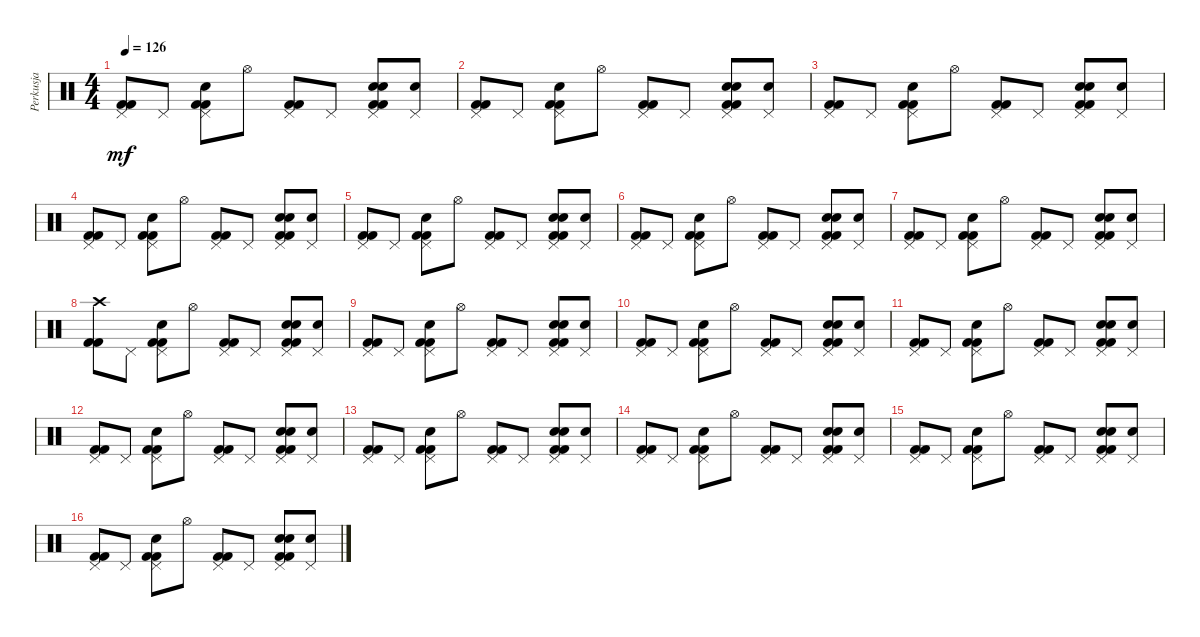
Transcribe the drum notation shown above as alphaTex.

\track ("Perkusja" "Perkusja") {instrument percussion}
\staff {score}
\articulation defaults
\ts (4 4)
\tempo 126
\clef neutral
\ks c
("Pedal Hi-Hat (hit)" "Kick (hit) 2" "Kick (hit) 2").8{dy mf} "Pedal Hi-Hat (hit)".8 ("Pedal Hi-Hat (hit)" "Snare (hit) 2" "Kick (hit) 2" "Kick (hit) 2").8 "Hi-Hat (open)".8 ("Pedal Hi-Hat (hit)" "Kick (hit) 2" "Kick (hit) 2").8 "Pedal Hi-Hat (hit)".8 ("Pedal Hi-Hat (hit)" "Hand Clap (hit)" "Snare (hit) 2" "Kick (hit) 2" "Kick (hit) 2").8 ("Pedal Hi-Hat (hit)" "Hand Clap (hit)").8 |
("Pedal Hi-Hat (hit)" "Kick (hit) 2" "Kick (hit) 2").8 "Pedal Hi-Hat (hit)".8 ("Pedal Hi-Hat (hit)" "Snare (hit) 2" "Kick (hit) 2" "Kick (hit) 2").8 "Hi-Hat (open)".8 ("Pedal Hi-Hat (hit)" "Kick (hit) 2" "Kick (hit) 2").8 "Pedal Hi-Hat (hit)".8 ("Pedal Hi-Hat (hit)" "Hand Clap (hit)" "Snare (hit) 2" "Kick (hit) 2" "Kick (hit) 2").8 ("Pedal Hi-Hat (hit)" "Hand Clap (hit)").8 |
("Pedal Hi-Hat (hit)" "Kick (hit) 2" "Kick (hit) 2").8 "Pedal Hi-Hat (hit)".8 ("Pedal Hi-Hat (hit)" "Snare (hit) 2" "Kick (hit) 2" "Kick (hit) 2").8 "Hi-Hat (open)".8 ("Pedal Hi-Hat (hit)" "Kick (hit) 2" "Kick (hit) 2").8 "Pedal Hi-Hat (hit)".8 ("Pedal Hi-Hat (hit)" "Hand Clap (hit)" "Snare (hit) 2" "Kick (hit) 2" "Kick (hit) 2").8 ("Pedal Hi-Hat (hit)" "Hand Clap (hit)").8 |
("Pedal Hi-Hat (hit)" "Kick (hit) 2" "Kick (hit) 2").8 "Pedal Hi-Hat (hit)".8 ("Pedal Hi-Hat (hit)" "Snare (hit) 2" "Kick (hit) 2" "Kick (hit) 2").8 "Hi-Hat (open)".8 ("Pedal Hi-Hat (hit)" "Kick (hit) 2" "Kick (hit) 2").8 "Pedal Hi-Hat (hit)".8 ("Pedal Hi-Hat (hit)" "Hand Clap (hit)" "Snare (hit) 2" "Kick (hit) 2" "Kick (hit) 2").8 ("Pedal Hi-Hat (hit)" "Hand Clap (hit)").8 |
("Pedal Hi-Hat (hit)" "Kick (hit) 2" "Kick (hit) 2").8 "Pedal Hi-Hat (hit)".8 ("Pedal Hi-Hat (hit)" "Snare (hit) 2" "Kick (hit) 2" "Kick (hit) 2").8 "Hi-Hat (open)".8 ("Pedal Hi-Hat (hit)" "Kick (hit) 2" "Kick (hit) 2").8 "Pedal Hi-Hat (hit)".8 ("Pedal Hi-Hat (hit)" "Hand Clap (hit)" "Snare (hit) 2" "Kick (hit) 2" "Kick (hit) 2").8 ("Pedal Hi-Hat (hit)" "Hand Clap (hit)").8 |
("Pedal Hi-Hat (hit)" "Kick (hit) 2" "Kick (hit) 2").8 "Pedal Hi-Hat (hit)".8 ("Pedal Hi-Hat (hit)" "Snare (hit) 2" "Kick (hit) 2" "Kick (hit) 2").8 "Hi-Hat (open)".8 ("Pedal Hi-Hat (hit)" "Kick (hit) 2" "Kick (hit) 2").8 "Pedal Hi-Hat (hit)".8 ("Pedal Hi-Hat (hit)" "Hand Clap (hit)" "Snare (hit) 2" "Kick (hit) 2" "Kick (hit) 2").8 ("Pedal Hi-Hat (hit)" "Hand Clap (hit)").8 |
("Pedal Hi-Hat (hit)" "Kick (hit) 2" "Kick (hit) 2").8 "Pedal Hi-Hat (hit)".8 ("Pedal Hi-Hat (hit)" "Snare (hit) 2" "Kick (hit) 2" "Kick (hit) 2").8 "Hi-Hat (open)".8 ("Pedal Hi-Hat (hit)" "Kick (hit) 2" "Kick (hit) 2").8 "Pedal Hi-Hat (hit)".8 ("Pedal Hi-Hat (hit)" "Hand Clap (hit)" "Snare (hit) 2" "Kick (hit) 2" "Kick (hit) 2").8 ("Pedal Hi-Hat (hit)" "Hand Clap (hit)").8 |
("Crash high (hit)" "Kick (hit) 2" "Kick (hit) 2").8 "Pedal Hi-Hat (hit)".8 ("Pedal Hi-Hat (hit)" "Snare (hit) 2" "Kick (hit) 2" "Kick (hit) 2").8 "Hi-Hat (open)".8 ("Pedal Hi-Hat (hit)" "Kick (hit) 2" "Kick (hit) 2").8 "Pedal Hi-Hat (hit)".8 ("Pedal Hi-Hat (hit)" "Hand Clap (hit)" "Snare (hit) 2" "Kick (hit) 2" "Kick (hit) 2").8 ("Pedal Hi-Hat (hit)" "Hand Clap (hit)").8 |
("Pedal Hi-Hat (hit)" "Kick (hit) 2" "Kick (hit) 2").8 "Pedal Hi-Hat (hit)".8 ("Pedal Hi-Hat (hit)" "Snare (hit) 2" "Kick (hit) 2" "Kick (hit) 2").8 "Hi-Hat (open)".8 ("Pedal Hi-Hat (hit)" "Kick (hit) 2" "Kick (hit) 2").8 "Pedal Hi-Hat (hit)".8 ("Pedal Hi-Hat (hit)" "Hand Clap (hit)" "Snare (hit) 2" "Kick (hit) 2" "Kick (hit) 2").8 ("Pedal Hi-Hat (hit)" "Hand Clap (hit)").8 |
("Pedal Hi-Hat (hit)" "Kick (hit) 2" "Kick (hit) 2").8 "Pedal Hi-Hat (hit)".8 ("Pedal Hi-Hat (hit)" "Snare (hit) 2" "Kick (hit) 2" "Kick (hit) 2").8 "Hi-Hat (open)".8 ("Pedal Hi-Hat (hit)" "Kick (hit) 2" "Kick (hit) 2").8 "Pedal Hi-Hat (hit)".8 ("Pedal Hi-Hat (hit)" "Hand Clap (hit)" "Snare (hit) 2" "Kick (hit) 2" "Kick (hit) 2").8 ("Pedal Hi-Hat (hit)" "Hand Clap (hit)").8 |
("Pedal Hi-Hat (hit)" "Kick (hit) 2" "Kick (hit) 2").8 "Pedal Hi-Hat (hit)".8 ("Pedal Hi-Hat (hit)" "Snare (hit) 2" "Kick (hit) 2" "Kick (hit) 2").8 "Hi-Hat (open)".8 ("Pedal Hi-Hat (hit)" "Kick (hit) 2" "Kick (hit) 2").8 "Pedal Hi-Hat (hit)".8 ("Pedal Hi-Hat (hit)" "Hand Clap (hit)" "Snare (hit) 2" "Kick (hit) 2" "Kick (hit) 2").8 ("Pedal Hi-Hat (hit)" "Hand Clap (hit)").8 |
("Pedal Hi-Hat (hit)" "Kick (hit) 2" "Kick (hit) 2").8 "Pedal Hi-Hat (hit)".8 ("Pedal Hi-Hat (hit)" "Snare (hit) 2" "Kick (hit) 2" "Kick (hit) 2").8 "Hi-Hat (open)".8 ("Pedal Hi-Hat (hit)" "Kick (hit) 2" "Kick (hit) 2").8 "Pedal Hi-Hat (hit)".8 ("Pedal Hi-Hat (hit)" "Hand Clap (hit)" "Snare (hit) 2" "Kick (hit) 2" "Kick (hit) 2").8 ("Pedal Hi-Hat (hit)" "Hand Clap (hit)").8 |
("Pedal Hi-Hat (hit)" "Kick (hit) 2" "Kick (hit) 2").8 "Pedal Hi-Hat (hit)".8 ("Pedal Hi-Hat (hit)" "Snare (hit) 2" "Kick (hit) 2" "Kick (hit) 2").8 "Hi-Hat (open)".8 ("Pedal Hi-Hat (hit)" "Kick (hit) 2" "Kick (hit) 2").8 "Pedal Hi-Hat (hit)".8 ("Pedal Hi-Hat (hit)" "Hand Clap (hit)" "Snare (hit) 2" "Kick (hit) 2" "Kick (hit) 2").8 ("Pedal Hi-Hat (hit)" "Hand Clap (hit)").8 |
("Pedal Hi-Hat (hit)" "Kick (hit) 2" "Kick (hit) 2").8 "Pedal Hi-Hat (hit)".8 ("Pedal Hi-Hat (hit)" "Snare (hit) 2" "Kick (hit) 2" "Kick (hit) 2").8 "Hi-Hat (open)".8 ("Pedal Hi-Hat (hit)" "Kick (hit) 2" "Kick (hit) 2").8 "Pedal Hi-Hat (hit)".8 ("Pedal Hi-Hat (hit)" "Hand Clap (hit)" "Snare (hit) 2" "Kick (hit) 2" "Kick (hit) 2").8 ("Pedal Hi-Hat (hit)" "Hand Clap (hit)").8 |
("Pedal Hi-Hat (hit)" "Kick (hit) 2" "Kick (hit) 2").8 "Pedal Hi-Hat (hit)".8 ("Pedal Hi-Hat (hit)" "Snare (hit) 2" "Kick (hit) 2" "Kick (hit) 2").8 "Hi-Hat (open)".8 ("Pedal Hi-Hat (hit)" "Kick (hit) 2" "Kick (hit) 2").8 "Pedal Hi-Hat (hit)".8 ("Pedal Hi-Hat (hit)" "Hand Clap (hit)" "Snare (hit) 2" "Kick (hit) 2" "Kick (hit) 2").8 ("Pedal Hi-Hat (hit)" "Hand Clap (hit)").8 |
("Pedal Hi-Hat (hit)" "Kick (hit) 2" "Kick (hit) 2").8 "Pedal Hi-Hat (hit)".8 ("Pedal Hi-Hat (hit)" "Snare (hit) 2" "Kick (hit) 2" "Kick (hit) 2").8 "Hi-Hat (open)".8 ("Pedal Hi-Hat (hit)" "Kick (hit) 2" "Kick (hit) 2").8 "Pedal Hi-Hat (hit)".8 ("Pedal Hi-Hat (hit)" "Hand Clap (hit)" "Snare (hit) 2" "Kick (hit) 2" "Kick (hit) 2").8 ("Pedal Hi-Hat (hit)" "Hand Clap (hit)").8
